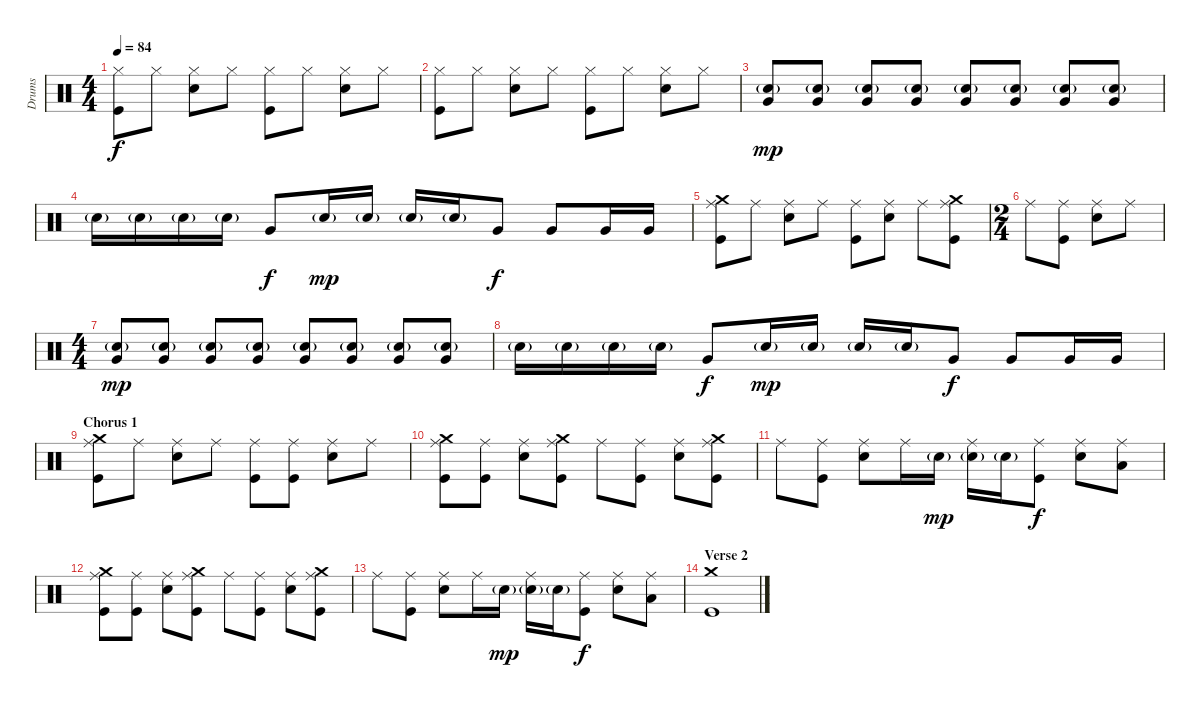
\track ("Drums" "Drums") {instrument percussion}
\staff {score}
\articulation defaults
\ts (4 4)
\tempo 84
\clef neutral
\ks c
("Hi-Hat (closed)" "Kick (hit)").8{dy f} "Hi-Hat (closed)".8 ("Hi-Hat (closed)" "Snare (hit) 2").8 "Hi-Hat (closed)".8 ("Hi-Hat (closed)" "Kick (hit)").8 "Hi-Hat (closed)".8 ("Hi-Hat (closed)" "Snare (hit) 2").8 "Hi-Hat (closed)".8 |
("Hi-Hat (closed)" "Kick (hit)").8 "Hi-Hat (closed)".8 ("Hi-Hat (closed)" "Snare (hit) 2").8 "Hi-Hat (closed)".8 ("Hi-Hat (closed)" "Kick (hit)").8 "Hi-Hat (closed)".8 ("Hi-Hat (closed)" "Snare (hit) 2").8 "Hi-Hat (closed)".8 |
\section ("" "")
("Snare (hit) 2"{g} "Very Low Tom (hit)").8{dy mp} ("Snare (hit) 2"{g} "Very Low Tom (hit)").8 ("Snare (hit) 2"{g} "Very Low Tom (hit)").8 ("Snare (hit) 2"{g} "Very Low Tom (hit)").8 ("Snare (hit) 2"{g} "Very Low Tom (hit)").8 ("Snare (hit) 2"{g} "Very Low Tom (hit)").8 ("Snare (hit) 2"{g} "Very Low Tom (hit)").8 ("Snare (hit) 2"{g} "Very Low Tom (hit)").8 |
"Snare (hit) 2"{g}.16 "Snare (hit) 2"{g}.16 "Snare (hit) 2"{g}.16 "Snare (hit) 2"{g}.16 "Very Low Tom (hit)".8{dy f} "Snare (hit) 2"{g}.16{dy mp} "Snare (hit) 2"{g}.16 "Snare (hit) 2"{g}.16 "Snare (hit) 2"{g}.16 "Very Low Tom (hit)".8{dy f} "Very Low Tom (hit)".8 "Very Low Tom (hit)".16 "Very Low Tom (hit)".16 |
("Ride (middle)" "Crash medium (hit)" "Kick (hit)").8 "Ride (middle)".8 ("Ride (middle)" "Snare (hit) 2").8 "Ride (middle)".8 ("Ride (middle)" "Kick (hit)").8 ("Ride (middle)" "Snare (hit) 2").8 "Ride (middle)".8 ("Ride (middle)" "Crash medium (hit)" "Kick (hit)").8 |
\ts (2 4)
"Ride (middle)".8 ("Ride (middle)" "Kick (hit)").8 ("Ride (middle)" "Snare (hit) 2").8 "Ride (middle)".8 |
\ts (4 4)
("Snare (hit) 2"{g} "Very Low Tom (hit)").8{dy mp} ("Snare (hit) 2"{g} "Very Low Tom (hit)").8 ("Snare (hit) 2"{g} "Very Low Tom (hit)").8 ("Snare (hit) 2"{g} "Very Low Tom (hit)").8 ("Snare (hit) 2"{g} "Very Low Tom (hit)").8 ("Snare (hit) 2"{g} "Very Low Tom (hit)").8 ("Snare (hit) 2"{g} "Very Low Tom (hit)").8 ("Snare (hit) 2"{g} "Very Low Tom (hit)").8 |
"Snare (hit) 2"{g}.16 "Snare (hit) 2"{g}.16 "Snare (hit) 2"{g}.16 "Snare (hit) 2"{g}.16 "Very Low Tom (hit)".8{dy f} "Snare (hit) 2"{g}.16{dy mp} "Snare (hit) 2"{g}.16 "Snare (hit) 2"{g}.16 "Snare (hit) 2"{g}.16 "Very Low Tom (hit)".8{dy f} "Very Low Tom (hit)".8 "Very Low Tom (hit)".16 "Very Low Tom (hit)".16 |
\section ("" "Chorus 1")
("Ride (middle)" "Crash medium (hit)" "Kick (hit)").8 "Ride (middle)".8 ("Ride (middle)" "Snare (hit) 2").8 "Ride (middle)".8 ("Ride (middle)" "Kick (hit)").8 ("Ride (middle)" "Kick (hit)").8 ("Ride (middle)" "Snare (hit) 2").8 "Ride (middle)".8 |
("Ride (middle)" "Crash medium (hit)" "Kick (hit)").8 ("Ride (middle)" "Kick (hit)").8 ("Ride (middle)" "Snare (hit) 2").8 ("Ride (middle)" "Crash medium (hit)" "Kick (hit)").8 "Ride (middle)".8 ("Ride (middle)" "Kick (hit)").8 ("Ride (middle)" "Snare (hit) 2").8 ("Ride (middle)" "Crash medium (hit)" "Kick (hit)").8 |
"Ride (middle)".8 ("Ride (middle)" "Kick (hit)").8 ("Ride (middle)" "Snare (hit) 2").8 "Ride (middle)".16 "Snare (hit) 2"{g}.16{dy mp} ("Ride (middle)" "Snare (hit) 2"{g}).16 "Snare (hit) 2"{g}.16 ("Ride (middle)" "Kick (hit)").8{dy f} ("Ride (middle)" "Snare (hit) 2").8 ("Ride (middle)" "Low Tom (hit)").8 |
("Ride (middle)" "Crash medium (hit)" "Kick (hit)").8 ("Ride (middle)" "Kick (hit)").8 ("Ride (middle)" "Snare (hit) 2").8 ("Ride (middle)" "Crash medium (hit)" "Kick (hit)").8 "Ride (middle)".8 ("Ride (middle)" "Kick (hit)").8 ("Ride (middle)" "Snare (hit) 2").8 ("Ride (middle)" "Crash medium (hit)" "Kick (hit)").8 |
"Ride (middle)".8 ("Ride (middle)" "Kick (hit)").8 ("Ride (middle)" "Snare (hit) 2").8 "Ride (middle)".16 "Snare (hit) 2"{g}.16{dy mp} ("Ride (middle)" "Snare (hit) 2"{g}).16 "Snare (hit) 2"{g}.16 ("Ride (middle)" "Kick (hit)").8{dy f} ("Ride (middle)" "Snare (hit) 2").8 ("Ride (middle)" "Low Tom (hit)").8 |
\section ("" "Verse 2")
("Crash medium (hit)" "Kick (hit)").1
